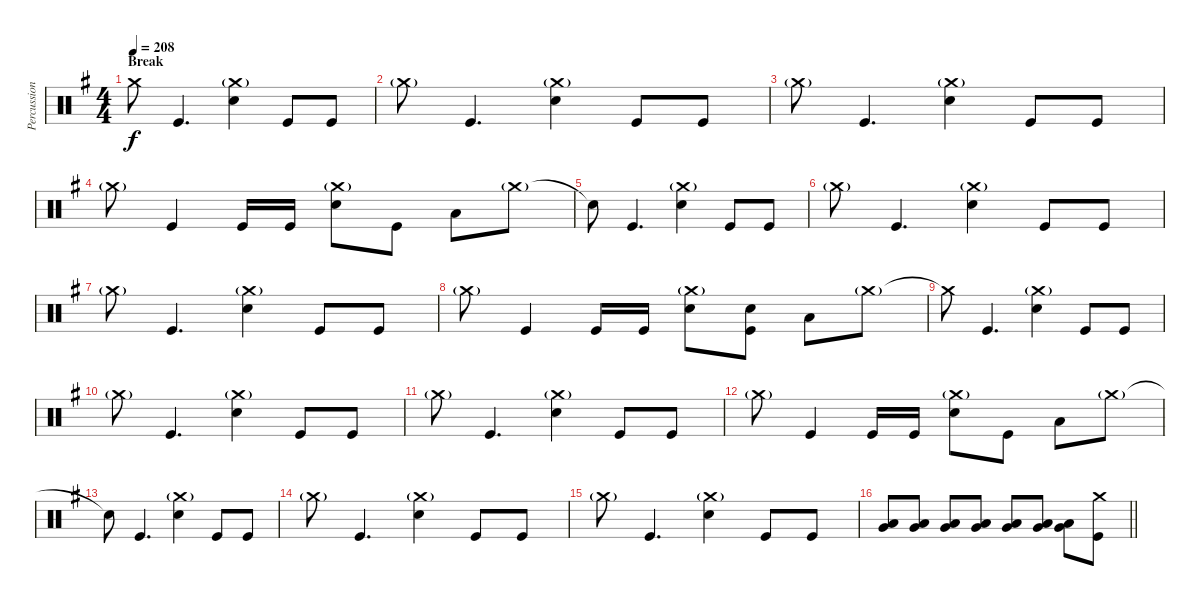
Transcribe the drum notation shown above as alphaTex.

\track ("Percussion" "Percussion") {instrument percussion}
\staff {score}
\articulation defaults
\ts (4 4)
\section ("" "Break")
\tempo 208
\clef neutral
\ks g "Crash medium (hit)".8{dy f} "Kick (hit)".4{d}
("Crash medium (hit)"{g} "Electric Snare (hit)").4 "Kick (hit)".8 "Kick (hit)".8 |
"Crash medium (hit)"{g}.8 "Kick (hit)".4{d} ("Crash medium (hit)"{g} "Electric Snare (hit)").4 "Kick (hit)".8 "Kick (hit)".8 |
"Crash medium (hit)"{g}.8 "Kick (hit)".4{d} ("Crash medium (hit)"{g} "Electric Snare (hit)").4 "Kick (hit)".8 "Kick (hit)".8 |
"Crash medium (hit)"{g}.8 "Kick (hit)".4 "Kick (hit)".16 "Kick (hit)".16 ("Crash medium (hit)"{g} "Electric Snare (hit)").8 "Kick (hit)".8 "Low Floor Tom (hit)".8 "Crash medium (hit)"{g}.8 |
"Snare (hit)"{t}.8 "Kick (hit)".4{d} ("Crash medium (hit)"{g} "Electric Snare (hit)").4 "Kick (hit)".8 "Kick (hit)".8 |
"Crash medium (hit)"{g}.8 "Kick (hit)".4{d} ("Crash medium (hit)"{g} "Electric Snare (hit)").4 "Kick (hit)".8 "Kick (hit)".8 |
"Crash medium (hit)"{g}.8 "Kick (hit)".4{d} ("Crash medium (hit)"{g} "Electric Snare (hit)").4 "Kick (hit)".8 "Kick (hit)".8 |
"Crash medium (hit)"{g}.8 "Kick (hit)".4 "Kick (hit)".16 "Kick (hit)".16 ("Crash medium (hit)"{g} "Electric Snare (hit)").8 ("Electric Snare (hit)" "Kick (hit)").8 "Low Floor Tom (hit)".8 "Crash medium (hit)"{g}.8 |
"Crash medium (hit)"{t}.8 "Kick (hit)".4{d} ("Crash medium (hit)"{g} "Electric Snare (hit)").4 "Kick (hit)".8 "Kick (hit)".8 |
"Crash medium (hit)"{g}.8 "Kick (hit)".4{d} ("Crash medium (hit)"{g} "Electric Snare (hit)").4 "Kick (hit)".8 "Kick (hit)".8 |
"Crash medium (hit)"{g}.8 "Kick (hit)".4{d} ("Crash medium (hit)"{g} "Electric Snare (hit)").4 "Kick (hit)".8 "Kick (hit)".8 |
"Crash medium (hit)"{g}.8 "Kick (hit)".4 "Kick (hit)".16 "Kick (hit)".16 ("Crash medium (hit)"{g} "Electric Snare (hit)").8 "Kick (hit)".8 "Low Floor Tom (hit)".8 "Crash medium (hit)"{g}.8 |
"Snare (hit)"{t}.8 "Kick (hit)".4{d} ("Crash medium (hit)"{g} "Electric Snare (hit)").4 "Kick (hit)".8 "Kick (hit)".8 |
"Crash medium (hit)"{g}.8 "Kick (hit)".4{d} ("Crash medium (hit)"{g} "Electric Snare (hit)").4 "Kick (hit)".8 "Kick (hit)".8 |
"Crash medium (hit)"{g}.8 "Kick (hit)".4{d} ("Crash medium (hit)"{g} "Electric Snare (hit)").4 "Kick (hit)".8 "Kick (hit)".8 |
\barLineRight lightlight
("Low Tom (hit)" "Very Low Tom (hit)").8 ("Low Tom (hit)" "Very Low Tom (hit)").8 ("Low Tom (hit)" "Very Low Tom (hit)").8 ("Low Tom (hit)" "Very Low Tom (hit)").8 ("Low Tom (hit)" "Very Low Tom (hit)").8 ("Low Tom (hit)" "Very Low Tom (hit)").8 ("Low Tom (hit)" "Very Low Tom (hit)").8 ("Crash medium (hit)" "Kick (hit)").8
